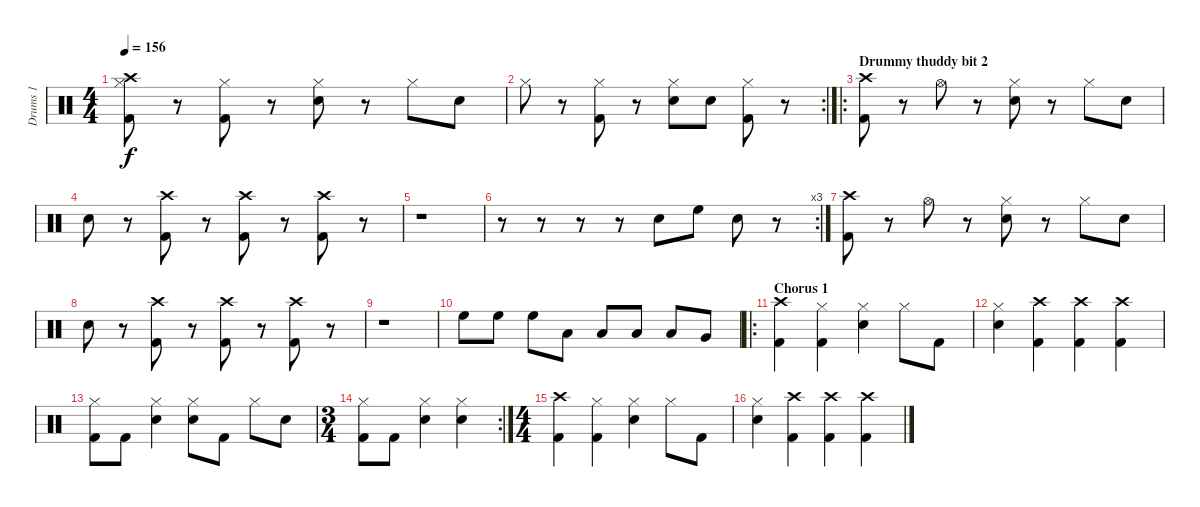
\track ("Drums 1" "Drums 1") {instrument percussion}
\staff {score}
\articulation defaults
\ts (4 4)
\tempo 156
\clef neutral
\ks c
("Hi-Hat (closed)" "Crash high (hit)" "Kick (hit) 2").8{dy f} r.8 ("Hi-Hat (closed)" "Kick (hit) 2").8 r.8 ("Hi-Hat (closed)" "Snare (hit) 2").8 r.8 "Hi-Hat (closed)".8 "Snare (hit) 2".8 |
\rc 2 "Hi-Hat (closed)".8
r.8 ("Hi-Hat (closed)" "Kick (hit) 2").8 r.8 ("Hi-Hat (closed)" "Snare (hit) 2").8 "Snare (hit) 2".8 ("Hi-Hat (closed)" "Kick (hit) 2").8 r.8 |
\ro
\section ("" "Drummy thuddy bit 2")
("Crash high (hit)" "Kick (hit) 2").8 r.8 "Hi-Hat (open)".8 r.8 ("Hi-Hat (closed)" "Snare (hit) 2").8 r.8 "Hi-Hat (closed)".8 "Snare (hit) 2".8 |
"Snare (hit) 2".8 r.8 ("Crash high (hit)" "Kick (hit) 2").8 r.8 ("Crash high (hit)" "Kick (hit) 2").8 r.8 ("Crash high (hit)" "Kick (hit) 2").8 r.8 |
r.1 |
\rc 3
r.8 r.8 r.8 r.8 "Snare (hit) 2".8 "High Floor Tom (hit)".8 "Snare (hit) 2".8 r.8 |
("Crash high (hit)" "Kick (hit) 2").8 r.8 "Hi-Hat (open)".8 r.8 ("Hi-Hat (closed)" "Snare (hit) 2").8 r.8 "Hi-Hat (closed)".8 "Snare (hit) 2".8 |
"Snare (hit) 2".8 r.8 ("Crash high (hit)" "Kick (hit) 2").8 r.8 ("Crash high (hit)" "Kick (hit) 2").8 r.8 ("Crash high (hit)" "Kick (hit) 2").8 r.8 |
r.1 |
"High Floor Tom (hit)".8 "High Floor Tom (hit)".8 "High Floor Tom (hit)".8 "Low Tom (hit)".8 "Low Tom (hit)".8 "Low Tom (hit)".8 "Low Tom (hit)".8 "Very Low Tom (hit)".8 |
\ro
\section ("" "Chorus 1")
("Crash high (hit)" "Kick (hit) 2").4 ("Hi-Hat (closed)" "Kick (hit) 2").4 ("Hi-Hat (closed)" "Snare (hit) 2").4 "Hi-Hat (closed)".8 "Kick (hit) 2".8 |
("Hi-Hat (closed)" "Snare (hit) 2").4 ("Crash high (hit)" "Kick (hit) 2").4 ("Crash high (hit)" "Kick (hit) 2").4 ("Crash high (hit)" "Kick (hit) 2").4 |
("Hi-Hat (closed)" "Kick (hit) 2").8 "Kick (hit) 2".8 ("Hi-Hat (closed)" "Snare (hit) 2").4 ("Hi-Hat (closed)" "Snare (hit) 2").8 "Kick (hit) 2".8 "Hi-Hat (closed)".8 "Snare (hit) 2".8 |
\rc 2
\ts (3 4)
("Hi-Hat (closed)" "Kick (hit) 2").8 "Kick (hit) 2".8 ("Hi-Hat (closed)" "Snare (hit) 2").4 ("Hi-Hat (closed)" "Snare (hit) 2").4 |
\ts (4 4)
("Crash high (hit)" "Kick (hit) 2").4 ("Hi-Hat (closed)" "Kick (hit) 2").4 ("Hi-Hat (closed)" "Snare (hit) 2").4 "Hi-Hat (closed)".8 "Kick (hit) 2".8 |
("Hi-Hat (closed)" "Snare (hit) 2").4 ("Crash high (hit)" "Kick (hit) 2").4 ("Crash high (hit)" "Kick (hit) 2").4 ("Crash high (hit)" "Kick (hit) 2").4
